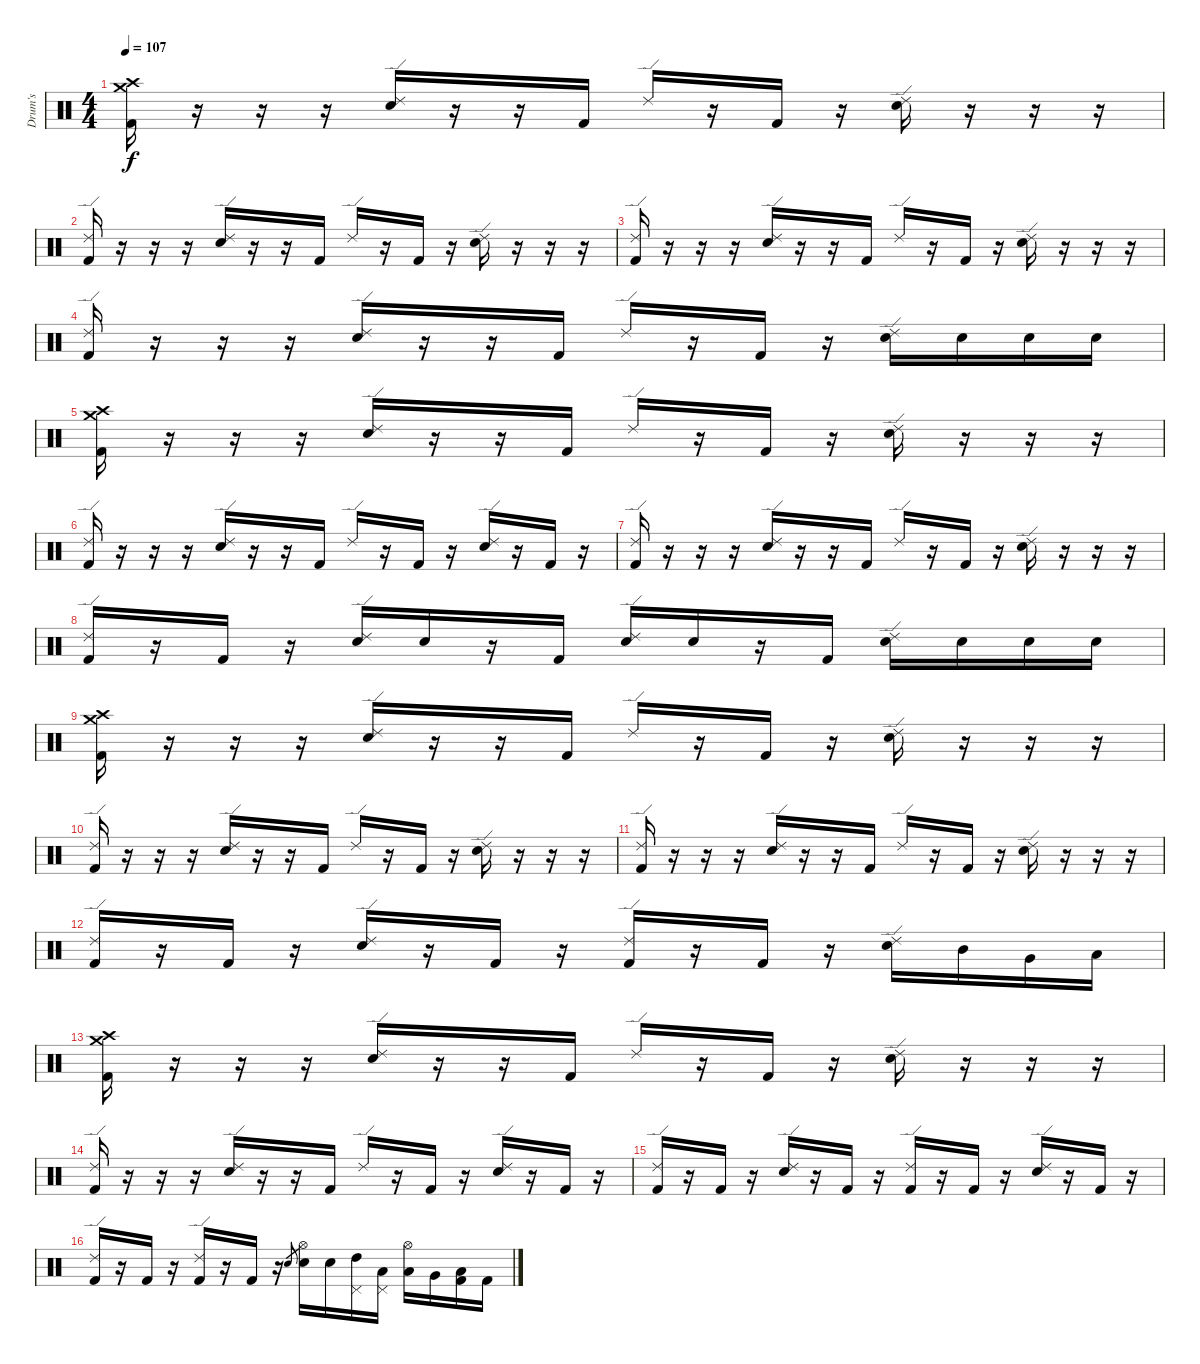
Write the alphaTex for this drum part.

\track ("Drum's" "Drum's") {instrument percussion}
\staff {score}
\articulation defaults
\ts (4 4)
\tempo 107
\clef neutral
\ks c
("Crash medium (hit)" "Crash high (hit)" "Kick (hit) 2").16{dy f} r.16 r.16 r.16 ("Ride (edge) 2" "Snare (hit) 2").16 r.16 r.16 "Kick (hit) 2".16 "Ride (edge) 2".16 r.16 "Kick (hit) 2".16 r.16 ("Ride (edge) 2" "Snare (hit) 2").16 r.16 r.16 r.16 |
("Ride (edge) 2" "Kick (hit) 2").16 r.16 r.16 r.16 ("Ride (edge) 2" "Snare (hit) 2").16 r.16 r.16 "Kick (hit) 2".16 "Ride (edge) 2".16 r.16 "Kick (hit) 2".16 r.16 ("Ride (edge) 2" "Snare (hit) 2").16 r.16 r.16 r.16 |
("Ride (edge) 2" "Kick (hit) 2").16 r.16 r.16 r.16 ("Ride (edge) 2" "Snare (hit) 2").16 r.16 r.16 "Kick (hit) 2".16 "Ride (edge) 2".16 r.16 "Kick (hit) 2".16 r.16 ("Ride (edge) 2" "Snare (hit) 2").16 r.16 r.16 r.16 |
("Ride (edge) 2" "Kick (hit) 2").16 r.16 r.16 r.16 ("Ride (edge) 2" "Snare (hit) 2").16 r.16 r.16 "Kick (hit) 2".16 "Ride (edge) 2".16 r.16 "Kick (hit) 2".16 r.16 ("Ride (edge) 2" "Snare (hit) 2").16 "Snare (hit) 2".16 "Snare (hit) 2".16 "Snare (hit) 2".16 |
("Crash medium (hit)" "Crash high (hit)" "Kick (hit) 2").16 r.16 r.16 r.16 ("Ride (edge) 2" "Snare (hit) 2").16 r.16 r.16 "Kick (hit) 2".16 "Ride (edge) 2".16 r.16 "Kick (hit) 2".16 r.16 ("Ride (edge) 2" "Snare (hit) 2").16 r.16 r.16 r.16 |
("Ride (edge) 2" "Kick (hit) 2").16 r.16 r.16 r.16 ("Ride (edge) 2" "Snare (hit) 2").16 r.16 r.16 "Kick (hit) 2".16 "Ride (edge) 2".16 r.16 "Kick (hit) 2".16 r.16 ("Ride (edge) 2" "Snare (hit) 2").16 r.16 "Kick (hit) 2".16 r.16 |
("Ride (edge) 2" "Kick (hit) 2").16 r.16 r.16 r.16 ("Ride (edge) 2" "Snare (hit) 2").16 r.16 r.16 "Kick (hit) 2".16 "Ride (edge) 2".16 r.16 "Kick (hit) 2".16 r.16 ("Ride (edge) 2" "Snare (hit) 2").16 r.16 r.16 r.16 |
("Ride (edge) 2" "Kick (hit) 2").16 r.16 "Kick (hit) 2".16 r.16 ("Ride (edge) 2" "Snare (hit) 2").16 "Snare (hit) 2".16 r.16 "Kick (hit) 2".16 ("Ride (edge) 2" "Snare (hit) 2").16 "Snare (hit) 2".16 r.16 "Kick (hit) 2".16 ("Ride (edge) 2" "Snare (hit) 2").16 "Snare (hit) 2".16 "Snare (hit) 2".16 "Snare (hit) 2".16 |
("Crash medium (hit)" "Crash high (hit)" "Kick (hit) 2").16 r.16 r.16 r.16 ("Ride (edge) 2" "Snare (hit) 2").16 r.16 r.16 "Kick (hit) 2".16 "Ride (edge) 2".16 r.16 "Kick (hit) 2".16 r.16 ("Ride (edge) 2" "Snare (hit) 2").16 r.16 r.16 r.16 |
("Ride (edge) 2" "Kick (hit) 2").16 r.16 r.16 r.16 ("Ride (edge) 2" "Snare (hit) 2").16 r.16 r.16 "Kick (hit) 2".16 "Ride (edge) 2".16 r.16 "Kick (hit) 2".16 r.16 ("Ride (edge) 2" "Snare (hit) 2").16 r.16 r.16 r.16 |
("Ride (edge) 2" "Kick (hit) 2").16 r.16 r.16 r.16 ("Ride (edge) 2" "Snare (hit) 2").16 r.16 r.16 "Kick (hit) 2".16 "Ride (edge) 2".16 r.16 "Kick (hit) 2".16 r.16 ("Ride (edge) 2" "Snare (hit) 2").16 r.16 r.16 r.16 |
("Ride (edge) 2" "Kick (hit) 2").16 r.16 "Kick (hit) 2".16 r.16 ("Ride (edge) 2" "Snare (hit) 2").16 r.16 "Kick (hit) 2".16 r.16 ("Ride (edge) 2" "Kick (hit) 2").16 r.16 "Kick (hit) 2".16 r.16 ("Ride (edge) 2" "Snare (hit) 2").16 "Mid Tom (hit)".16 "Very Low Tom (hit)".16 "Low Floor Tom (hit)".16 |
("Crash medium (hit)" "Crash high (hit)" "Kick (hit) 2").16 r.16 r.16 r.16 ("Ride (edge) 2" "Snare (hit) 2").16 r.16 r.16 "Kick (hit) 2".16 "Ride (edge) 2".16 r.16 "Kick (hit) 2".16 r.16 ("Ride (edge) 2" "Snare (hit) 2").16 r.16 r.16 r.16 |
("Ride (edge) 2" "Kick (hit) 2").16 r.16 r.16 r.16 ("Ride (edge) 2" "Snare (hit) 2").16 r.16 r.16 "Kick (hit) 2".16 "Ride (edge) 2".16 r.16 "Kick (hit) 2".16 r.16 ("Ride (edge) 2" "Snare (hit) 2").16 r.16 "Kick (hit) 2".16 r.16 |
("Ride (edge) 2" "Kick (hit) 2").16 r.16 "Kick (hit) 2".16 r.16 ("Ride (edge) 2" "Snare (hit) 2").16 r.16 "Kick (hit) 2".16 r.16 ("Ride (edge) 2" "Kick (hit) 2").16 r.16 "Kick (hit) 2".16 r.16 ("Ride (edge) 2" "Snare (hit) 2").16 r.16 "Kick (hit) 2".16 r.16 |
("Ride (edge) 2" "Kick (hit) 2").16 r.16 "Kick (hit) 2".16 r.16 ("Ride (edge) 2" "Kick (hit) 2").16 r.16 "Kick (hit) 2".16 r.16 "Snare (hit) 2".8{gr} ("Hi-Hat (open)" "Snare (hit) 2").16 "Snare (hit) 2".16 ("Pedal Hi-Hat (hit)" "High Tom (hit)").16 ("Pedal Hi-Hat (hit)" "Low Tom (hit)").16 ("Hi-Hat (open)" "Low Floor Tom (hit)").16 "Very Low Tom (hit)".16 ("Low Floor Tom (hit)" "Kick (hit) 2").16 "Kick (hit) 2".16
